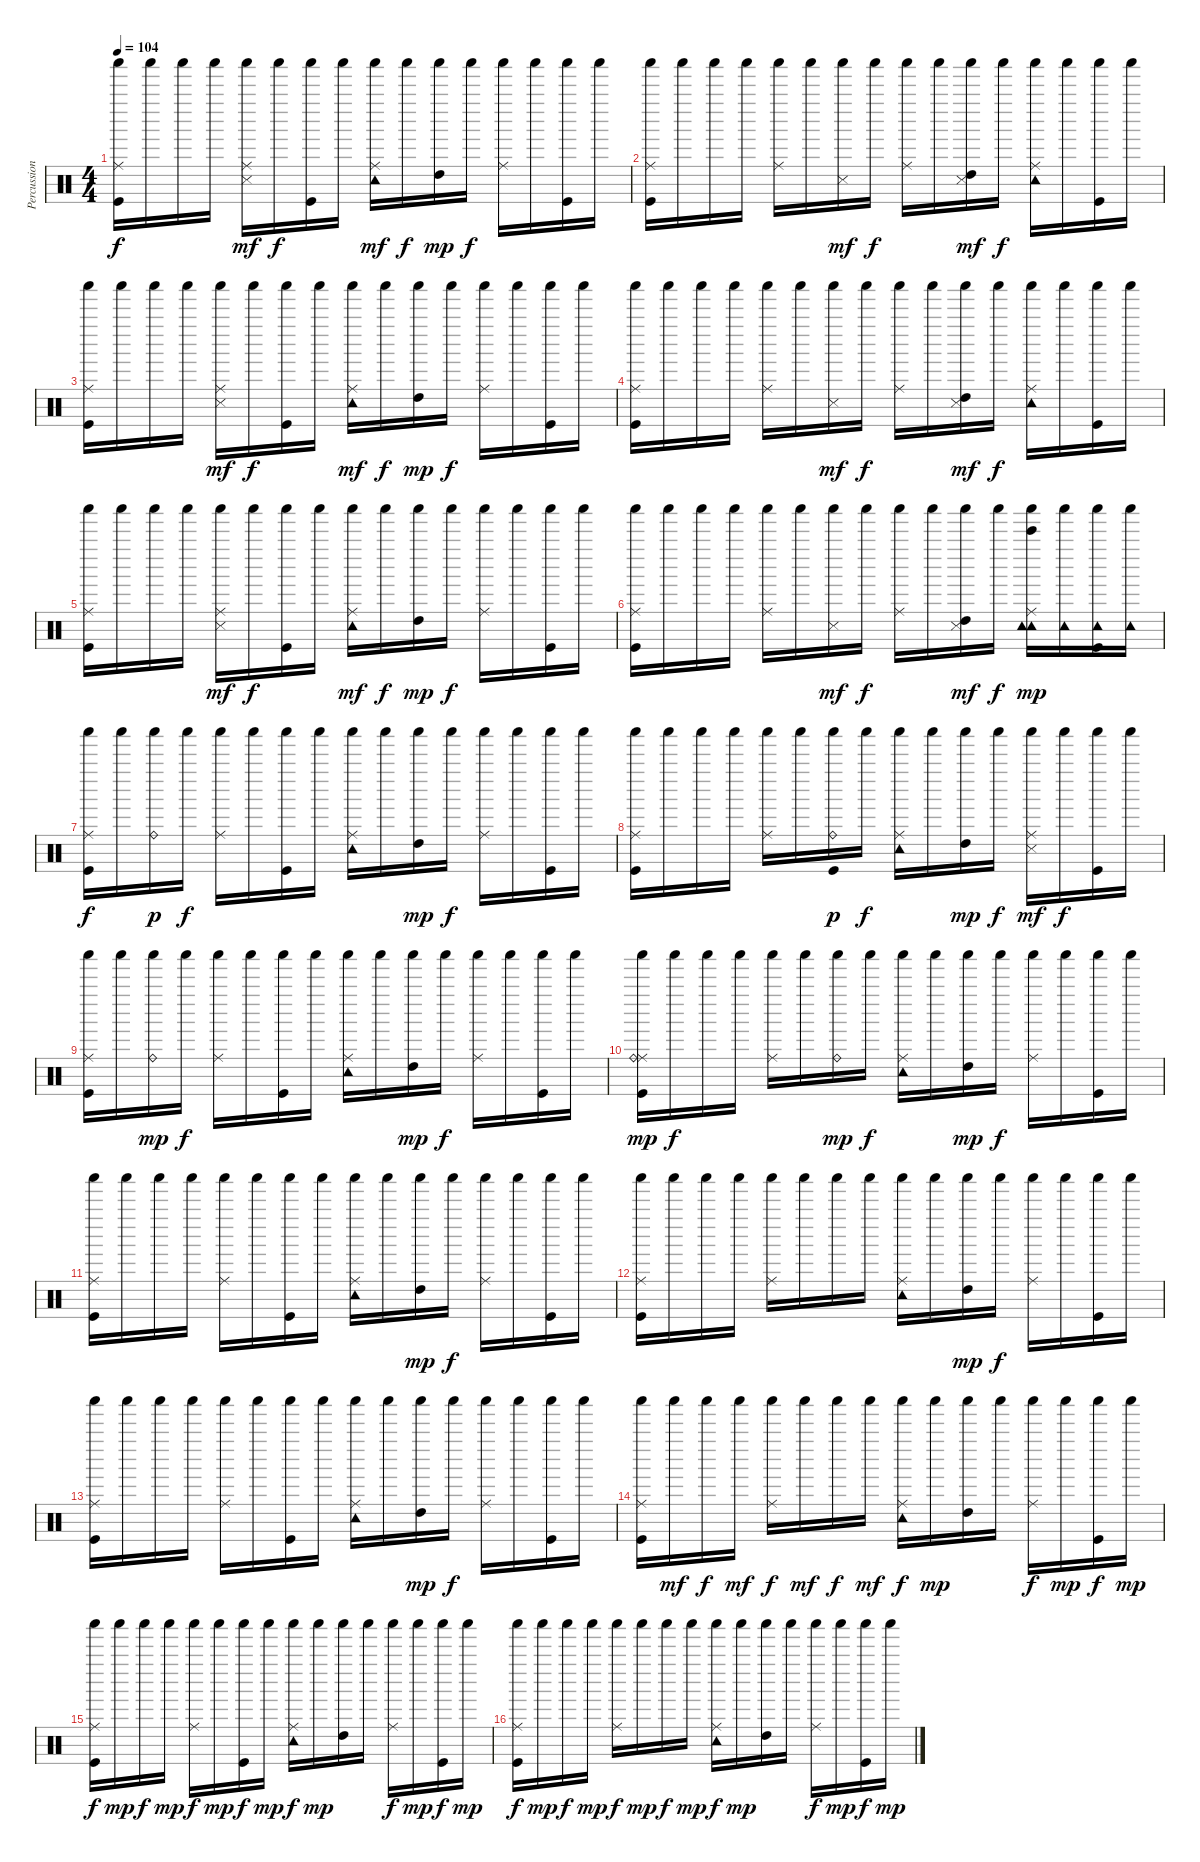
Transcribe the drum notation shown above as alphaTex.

\track ("Percussioni" "Percussion") {instrument percussion}
\staff {score}
\articulation defaults
\ts (4 4)
\tempo 104
\clef neutral
\ks c
("Ride (middle)" "Shaker (hit)" "Kick (hit)").16{dy f} "Shaker (hit)".16 "Shaker (hit)".16 "Shaker (hit)".16 ("Ride (middle)" "Shaker (hit)" "Snare (side stick) 3").16{dy mf} "Shaker (hit)".16{dy f} ("Shaker (hit)" "Kick (hit)").16 "Shaker (hit)".16 ("Ride (middle)" "Shaker (hit)" "Tambourine (hit)").16{dy mf} "Shaker (hit)".16{dy f} ("High Tom (hit)" "Shaker (hit)").16{dy mp} "Shaker (hit)".16{dy f} ("Ride (middle)" "Shaker (hit)").16 "Shaker (hit)".16 ("Shaker (hit)" "Kick (hit)").16 "Shaker (hit)".16 |
("Ride (middle)" "Shaker (hit)" "Kick (hit)").16 "Shaker (hit)".16 "Shaker (hit)".16 "Shaker (hit)".16 ("Ride (middle)" "Shaker (hit)").16 "Shaker (hit)".16 ("Shaker (hit)" "Snare (side stick) 3").16{dy mf} "Shaker (hit)".16{dy f} ("Ride (middle)" "Shaker (hit)").16 "Shaker (hit)".16 ("High Tom (hit)" "Shaker (hit)" "Snare (side stick) 3").16{dy mf} "Shaker (hit)".16{dy f} ("Ride (middle)" "Shaker (hit)" "Tambourine (hit)").16 "Shaker (hit)".16 ("Shaker (hit)" "Kick (hit)").16 "Shaker (hit)".16 |
("Ride (middle)" "Shaker (hit)" "Kick (hit)").16 "Shaker (hit)".16 "Shaker (hit)".16 "Shaker (hit)".16 ("Ride (middle)" "Shaker (hit)" "Snare (side stick) 3").16{dy mf} "Shaker (hit)".16{dy f} ("Shaker (hit)" "Kick (hit)").16 "Shaker (hit)".16 ("Ride (middle)" "Shaker (hit)" "Tambourine (hit)").16{dy mf} "Shaker (hit)".16{dy f} ("High Tom (hit)" "Shaker (hit)").16{dy mp} "Shaker (hit)".16{dy f} ("Ride (middle)" "Shaker (hit)").16 "Shaker (hit)".16 ("Shaker (hit)" "Kick (hit)").16 "Shaker (hit)".16 |
("Ride (middle)" "Shaker (hit)" "Kick (hit)").16 "Shaker (hit)".16 "Shaker (hit)".16 "Shaker (hit)".16 ("Ride (middle)" "Shaker (hit)").16 "Shaker (hit)".16 ("Shaker (hit)" "Snare (side stick) 3").16{dy mf} "Shaker (hit)".16{dy f} ("Ride (middle)" "Shaker (hit)").16 "Shaker (hit)".16 ("High Tom (hit)" "Shaker (hit)" "Snare (side stick) 3").16{dy mf} "Shaker (hit)".16{dy f} ("Ride (middle)" "Shaker (hit)" "Tambourine (hit)").16 "Shaker (hit)".16 ("Shaker (hit)" "Kick (hit)").16 "Shaker (hit)".16 |
("Ride (middle)" "Shaker (hit)" "Kick (hit)").16 "Shaker (hit)".16 "Shaker (hit)".16 "Shaker (hit)".16 ("Ride (middle)" "Shaker (hit)" "Snare (side stick) 3").16{dy mf} "Shaker (hit)".16{dy f} ("Shaker (hit)" "Kick (hit)").16 "Shaker (hit)".16 ("Ride (middle)" "Shaker (hit)" "Tambourine (hit)").16{dy mf} "Shaker (hit)".16{dy f} ("High Tom (hit)" "Shaker (hit)").16{dy mp} "Shaker (hit)".16{dy f} ("Ride (middle)" "Shaker (hit)").16 "Shaker (hit)".16 ("Shaker (hit)" "Kick (hit)").16 "Shaker (hit)".16 |
("Ride (middle)" "Shaker (hit)" "Kick (hit)").16 "Shaker (hit)".16 "Shaker (hit)".16 "Shaker (hit)".16 ("Ride (middle)" "Shaker (hit)").16 "Shaker (hit)".16 ("Shaker (hit)" "Snare (side stick) 3").16{dy mf} "Shaker (hit)".16{dy f} ("Ride (middle)" "Shaker (hit)").16 "Shaker (hit)".16 ("High Tom (hit)" "Shaker (hit)" "Snare (side stick) 3").16{dy mf} "Shaker (hit)".16{dy f} ("Ride (middle)" "Bell Tree (hit)" "Shaker (hit)" "Tambourine (hit)" "Tambourine (hit)").16{dy mp} ("Shaker (hit)" "Tambourine (hit)").16 ("Shaker (hit)" "Tambourine (hit)" "Kick (hit)").16 ("Shaker (hit)" "Tambourine (hit)").16 |
("Ride (middle)" "Shaker (hit)" "Kick (hit)").16{dy f} "Shaker (hit)".16 ("Ride (bell)" "Shaker (hit)").16{dy p} "Shaker (hit)".16{dy f} ("Ride (middle)" "Shaker (hit)").16 "Shaker (hit)".16 ("Shaker (hit)" "Kick (hit)").16 "Shaker (hit)".16 ("Ride (middle)" "Shaker (hit)" "Tambourine (hit)").16 "Shaker (hit)".16 ("High Tom (hit)" "Shaker (hit)").16{dy mp} "Shaker (hit)".16{dy f} ("Ride (middle)" "Shaker (hit)").16 "Shaker (hit)".16 ("Shaker (hit)" "Kick (hit)").16 "Shaker (hit)".16 |
("Ride (middle)" "Shaker (hit)" "Kick (hit)").16 "Shaker (hit)".16 "Shaker (hit)".16 "Shaker (hit)".16 ("Ride (middle)" "Shaker (hit)").16 "Shaker (hit)".16 ("Ride (bell)" "Shaker (hit)" "Kick (hit)").16{dy p} "Shaker (hit)".16{dy f} ("Ride (middle)" "Shaker (hit)" "Tambourine (hit)").16 "Shaker (hit)".16 ("High Tom (hit)" "Shaker (hit)").16{dy mp} "Shaker (hit)".16{dy f} ("Ride (middle)" "Shaker (hit)" "Snare (side stick) 3").16{dy mf} "Shaker (hit)".16{dy f} ("Shaker (hit)" "Kick (hit)").16 "Shaker (hit)".16 |
("Ride (middle)" "Shaker (hit)" "Kick (hit)").16 "Shaker (hit)".16 ("Ride (bell)" "Shaker (hit)").16{dy mp} "Shaker (hit)".16{dy f} ("Ride (middle)" "Shaker (hit)").16 "Shaker (hit)".16 ("Shaker (hit)" "Kick (hit)").16 "Shaker (hit)".16 ("Ride (middle)" "Shaker (hit)" "Tambourine (hit)").16 "Shaker (hit)".16 ("High Tom (hit)" "Shaker (hit)").16{dy mp} "Shaker (hit)".16{dy f} ("Ride (middle)" "Shaker (hit)").16 "Shaker (hit)".16 ("Shaker (hit)" "Kick (hit)").16 "Shaker (hit)".16 |
("Ride (middle)" "Shaker (hit)" "Ride (bell)" "Kick (hit)").16{dy mp} "Shaker (hit)".16{dy f} "Shaker (hit)".16 "Shaker (hit)".16 ("Ride (middle)" "Shaker (hit)").16 "Shaker (hit)".16 ("Ride (bell)" "Shaker (hit)").16{dy mp} "Shaker (hit)".16{dy f} ("Ride (middle)" "Shaker (hit)" "Tambourine (hit)").16 "Shaker (hit)".16 ("High Tom (hit)" "Shaker (hit)").16{dy mp} "Shaker (hit)".16{dy f} ("Ride (middle)" "Shaker (hit)").16 "Shaker (hit)".16 ("Shaker (hit)" "Kick (hit)").16 "Shaker (hit)".16 |
("Ride (middle)" "Shaker (hit)" "Kick (hit)").16 "Shaker (hit)".16 "Shaker (hit)".16 "Shaker (hit)".16 ("Ride (middle)" "Shaker (hit)").16 "Shaker (hit)".16 ("Shaker (hit)" "Kick (hit)").16 "Shaker (hit)".16 ("Ride (middle)" "Shaker (hit)" "Tambourine (hit)").16 "Shaker (hit)".16 ("High Tom (hit)" "Shaker (hit)").16{dy mp} "Shaker (hit)".16{dy f} ("Ride (middle)" "Shaker (hit)").16 "Shaker (hit)".16 ("Shaker (hit)" "Kick (hit)").16 "Shaker (hit)".16 |
("Ride (middle)" "Shaker (hit)" "Kick (hit)").16 "Shaker (hit)".16 "Shaker (hit)".16 "Shaker (hit)".16 ("Ride (middle)" "Shaker (hit)").16 "Shaker (hit)".16 "Shaker (hit)".16 "Shaker (hit)".16 ("Ride (middle)" "Shaker (hit)" "Tambourine (hit)").16 "Shaker (hit)".16 ("High Tom (hit)" "Shaker (hit)").16{dy mp} "Shaker (hit)".16{dy f} ("Ride (middle)" "Shaker (hit)").16 "Shaker (hit)".16 ("Shaker (hit)" "Kick (hit)").16 "Shaker (hit)".16 |
("Ride (middle)" "Shaker (hit)" "Kick (hit)").16 "Shaker (hit)".16 "Shaker (hit)".16 "Shaker (hit)".16 ("Ride (middle)" "Shaker (hit)").16 "Shaker (hit)".16 ("Shaker (hit)" "Kick (hit)").16 "Shaker (hit)".16 ("Ride (middle)" "Shaker (hit)" "Tambourine (hit)").16 "Shaker (hit)".16 ("High Tom (hit)" "Shaker (hit)").16{dy mp} "Shaker (hit)".16{dy f} ("Ride (middle)" "Shaker (hit)").16 "Shaker (hit)".16 ("Shaker (hit)" "Kick (hit)").16 "Shaker (hit)".16 |
("Ride (middle)" "Shaker (hit)" "Kick (hit)").16 "Shaker (hit)".16{dy mf} "Shaker (hit)".16{dy f} "Shaker (hit)".16{dy mf} ("Ride (middle)" "Shaker (hit)").16{dy f} "Shaker (hit)".16{dy mf} "Shaker (hit)".16{dy f} "Shaker (hit)".16{dy mf} ("Ride (middle)" "Shaker (hit)" "Tambourine (hit)").16{dy f} "Shaker (hit)".16{dy mp} ("High Tom (hit)" "Shaker (hit)").16 "Shaker (hit)".16 ("Ride (middle)" "Shaker (hit)").16{dy f} "Shaker (hit)".16{dy mp} ("Shaker (hit)" "Kick (hit)").16{dy f} "Shaker (hit)".16{dy mp} |
("Ride (middle)" "Shaker (hit)" "Kick (hit)").16{dy f} "Shaker (hit)".16{dy mp} "Shaker (hit)".16{dy f} "Shaker (hit)".16{dy mp} ("Ride (middle)" "Shaker (hit)").16{dy f} "Shaker (hit)".16{dy mp} ("Shaker (hit)" "Kick (hit)").16{dy f} "Shaker (hit)".16{dy mp} ("Ride (middle)" "Shaker (hit)" "Tambourine (hit)").16{dy f} "Shaker (hit)".16{dy mp} ("High Tom (hit)" "Shaker (hit)").16 "Shaker (hit)".16 ("Ride (middle)" "Shaker (hit)").16{dy f} "Shaker (hit)".16{dy mp} ("Shaker (hit)" "Kick (hit)").16{dy f} "Shaker (hit)".16{dy mp} |
("Ride (middle)" "Shaker (hit)" "Kick (hit)").16{dy f} "Shaker (hit)".16{dy mp} "Shaker (hit)".16{dy f} "Shaker (hit)".16{dy mp} ("Ride (middle)" "Shaker (hit)").16{dy f} "Shaker (hit)".16{dy mp} "Shaker (hit)".16{dy f} "Shaker (hit)".16{dy mp} ("Ride (middle)" "Shaker (hit)" "Tambourine (hit)").16{dy f} "Shaker (hit)".16{dy mp} ("High Tom (hit)" "Shaker (hit)").16 "Shaker (hit)".16 ("Ride (middle)" "Shaker (hit)").16{dy f} "Shaker (hit)".16{dy mp} ("Shaker (hit)" "Kick (hit)").16{dy f} "Shaker (hit)".16{dy mp}
